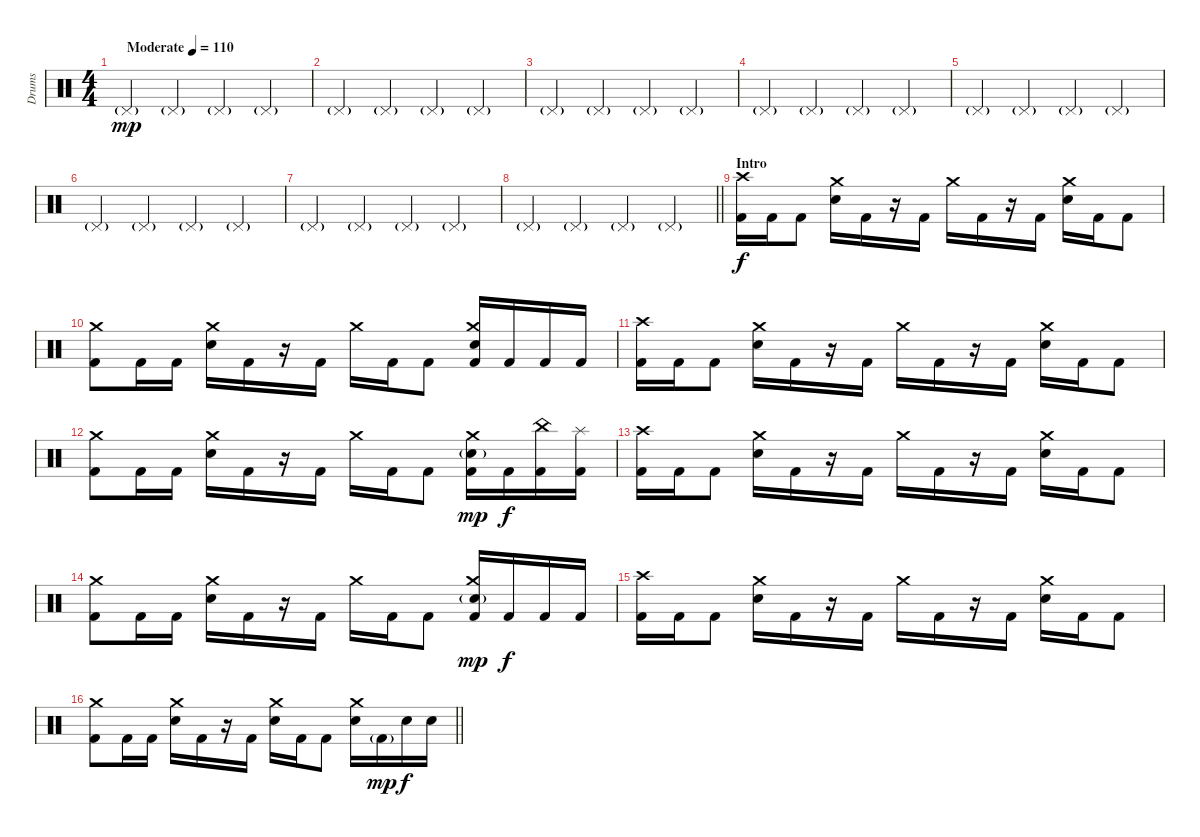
\track ("Drums" "Drums") {instrument percussion}
\staff {score}
\articulation defaults
\ts (4 4)
\tempo (110 "Moderate")
\clef neutral
\ks c "Pedal Hi-Hat (hit)"{g}.4{dy mp} "Pedal Hi-Hat (hit)"{g}.4 "Pedal Hi-Hat (hit)"{g}.4 "Pedal Hi-Hat (hit)"{g}.4
|
"Pedal Hi-Hat (hit)"{g}.4 "Pedal Hi-Hat (hit)"{g}.4 "Pedal Hi-Hat (hit)"{g}.4 "Pedal Hi-Hat (hit)"{g}.4 |
"Pedal Hi-Hat (hit)"{g}.4 "Pedal Hi-Hat (hit)"{g}.4 "Pedal Hi-Hat (hit)"{g}.4 "Pedal Hi-Hat (hit)"{g}.4 |
"Pedal Hi-Hat (hit)"{g}.4 "Pedal Hi-Hat (hit)"{g}.4 "Pedal Hi-Hat (hit)"{g}.4 "Pedal Hi-Hat (hit)"{g}.4 |
"Pedal Hi-Hat (hit)"{g}.4 "Pedal Hi-Hat (hit)"{g}.4 "Pedal Hi-Hat (hit)"{g}.4 "Pedal Hi-Hat (hit)"{g}.4 |
"Pedal Hi-Hat (hit)"{g}.4 "Pedal Hi-Hat (hit)"{g}.4 "Pedal Hi-Hat (hit)"{g}.4 "Pedal Hi-Hat (hit)"{g}.4 |
"Pedal Hi-Hat (hit)"{g}.4 "Pedal Hi-Hat (hit)"{g}.4 "Pedal Hi-Hat (hit)"{g}.4 "Pedal Hi-Hat (hit)"{g}.4 |
\barLineRight lightlight "Pedal Hi-Hat (hit)"{g}.4 "Pedal Hi-Hat (hit)"{g}.4 "Pedal Hi-Hat (hit)"{g}.4 "Pedal Hi-Hat (hit)"{g}.4
|
\section ("" "Intro")
("Crash high (hit)" "Kick (hit) 2").16{dy f} "Kick (hit) 2".16 "Kick (hit) 2".8 ("Crash medium (hit)" "Electric Snare (hit)").16 "Kick (hit) 2".16 r.16 "Kick (hit) 2".16 "Crash medium (hit)".16 "Kick (hit) 2".16 r.16 "Kick (hit) 2".16 ("Crash medium (hit)" "Electric Snare (hit)").16 "Kick (hit) 2".16 "Kick (hit) 2".8 |
("Crash medium (hit)" "Kick (hit) 2").8 "Kick (hit) 2".16 "Kick (hit) 2".16 ("Crash medium (hit)" "Electric Snare (hit)").16 "Kick (hit) 2".16 r.16 "Kick (hit) 2".16 "Crash medium (hit)".16 "Kick (hit) 2".16 "Kick (hit) 2".8 ("Crash medium (hit)" "Electric Snare (hit)" "Kick (hit) 2").16 "Kick (hit) 2".16 "Kick (hit) 2".16 "Kick (hit) 2".16 |
("Crash high (hit)" "Kick (hit) 2").16 "Kick (hit) 2".16 "Kick (hit) 2".8 ("Crash medium (hit)" "Electric Snare (hit)").16 "Kick (hit) 2".16 r.16 "Kick (hit) 2".16 "Crash medium (hit)".16 "Kick (hit) 2".16 r.16 "Kick (hit) 2".16 ("Crash medium (hit)" "Electric Snare (hit)").16 "Kick (hit) 2".16 "Kick (hit) 2".8 |
("Crash medium (hit)" "Kick (hit) 2").8 "Kick (hit) 2".16 "Kick (hit) 2".16 ("Crash medium (hit)" "Electric Snare (hit)").16 "Kick (hit) 2".16 r.16 "Kick (hit) 2".16 "Crash medium (hit)".16 "Kick (hit) 2".16 "Kick (hit) 2".8 ("Crash medium (hit)" "Electric Snare (hit)"{g} "Kick (hit) 2").16{dy mp} "Kick (hit) 2".16{dy f} ("China (hit)" "Kick (hit) 2").16 ("Splash (hit)" "Kick (hit) 2").16 |
("Crash high (hit)" "Kick (hit) 2").16 "Kick (hit) 2".16 "Kick (hit) 2".8 ("Crash medium (hit)" "Electric Snare (hit)").16 "Kick (hit) 2".16 r.16 "Kick (hit) 2".16 "Crash medium (hit)".16 "Kick (hit) 2".16 r.16 "Kick (hit) 2".16 ("Crash medium (hit)" "Electric Snare (hit)").16 "Kick (hit) 2".16 "Kick (hit) 2".8 |
("Crash medium (hit)" "Kick (hit) 2").8 "Kick (hit) 2".16 "Kick (hit) 2".16 ("Crash medium (hit)" "Electric Snare (hit)").16 "Kick (hit) 2".16 r.16 "Kick (hit) 2".16 "Crash medium (hit)".16 "Kick (hit) 2".16 "Kick (hit) 2".8 ("Crash medium (hit)" "Electric Snare (hit)"{g} "Kick (hit) 2").16{dy mp} "Kick (hit) 2".16{dy f} "Kick (hit) 2".16 "Kick (hit) 2".16 |
("Crash high (hit)" "Kick (hit) 2").16 "Kick (hit) 2".16 "Kick (hit) 2".8 ("Crash medium (hit)" "Electric Snare (hit)").16 "Kick (hit) 2".16 r.16 "Kick (hit) 2".16 "Crash medium (hit)".16 "Kick (hit) 2".16 r.16 "Kick (hit) 2".16 ("Crash medium (hit)" "Electric Snare (hit)").16 "Kick (hit) 2".16 "Kick (hit) 2".8 |
\barLineRight lightlight
("Crash medium (hit)" "Kick (hit) 2").8 "Kick (hit) 2".16 "Kick (hit) 2".16 ("Crash medium (hit)" "Electric Snare (hit)").16 "Kick (hit) 2".16 r.16 "Kick (hit) 2".16 ("Crash medium (hit)" "Electric Snare (hit)").16 "Kick (hit) 2".16 "Kick (hit) 2".8 ("Crash medium (hit)" "Electric Snare (hit)").16 "Kick (hit) 2"{g}.16{dy mp} "Electric Snare (hit)".16{dy f} "Electric Snare (hit)".16
